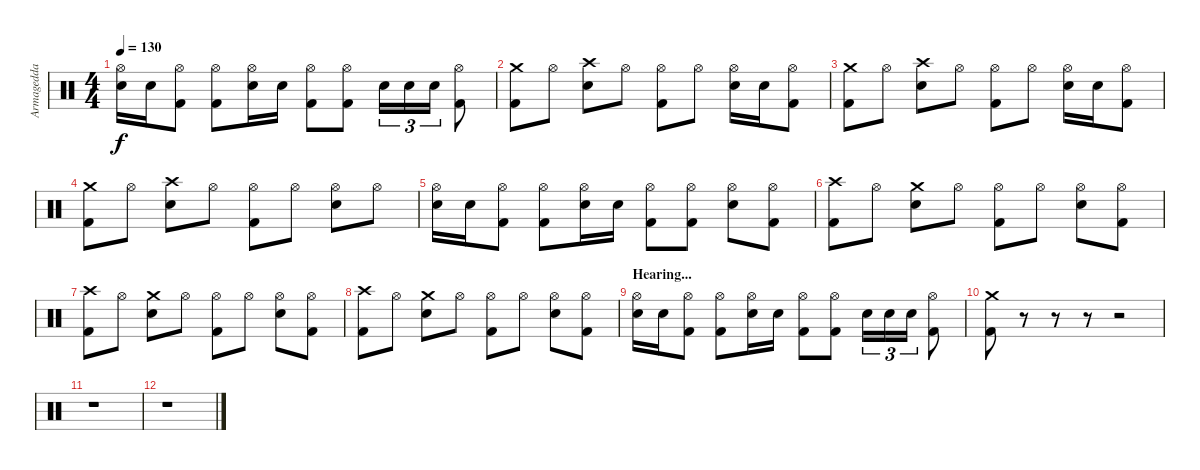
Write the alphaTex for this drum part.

\track ("Armagedda" "Armagedda") {instrument percussion}
\staff {score}
\articulation defaults
\ts (4 4)
\tempo 130
\clef neutral
\ks c
("Hi-Hat (open)" "Electric Snare (hit)").16{dy f} "Electric Snare (hit)".16 ("Hi-Hat (open)" "Kick (hit) 2").8 ("Hi-Hat (open)" "Kick (hit) 2").8 ("Hi-Hat (open)" "Electric Snare (hit)").16 "Electric Snare (hit)".16 ("Hi-Hat (open)" "Kick (hit) 2").8 ("Hi-Hat (open)" "Kick (hit) 2").8 "Electric Snare (hit)".16{tu (3 2)} "Electric Snare (hit)".16{tu (3 2)} "Electric Snare (hit)".16{tu (3 2)} ("Hi-Hat (open)" "Kick (hit) 2").8 |
("Crash medium (hit)" "Kick (hit) 2").8 "Hi-Hat (open)".8 ("Crash high (hit)" "Electric Snare (hit)").8 "Hi-Hat (open)".8 ("Hi-Hat (open)" "Kick (hit) 2").8 "Hi-Hat (open)".8 ("Hi-Hat (open)" "Electric Snare (hit)").16 "Electric Snare (hit)".16 ("Hi-Hat (open)" "Kick (hit) 2").8 |
("Crash medium (hit)" "Kick (hit) 2").8 "Hi-Hat (open)".8 ("Crash high (hit)" "Electric Snare (hit)").8 "Hi-Hat (open)".8 ("Hi-Hat (open)" "Kick (hit) 2").8 "Hi-Hat (open)".8 ("Hi-Hat (open)" "Electric Snare (hit)").16 "Electric Snare (hit)".16 ("Hi-Hat (open)" "Kick (hit) 2").8 |
("Crash medium (hit)" "Kick (hit) 2").8 "Hi-Hat (open)".8 ("Crash high (hit)" "Electric Snare (hit)").8 "Hi-Hat (open)".8 ("Hi-Hat (open)" "Kick (hit) 2").8 "Hi-Hat (open)".8 ("Hi-Hat (open)" "Electric Snare (hit)").8 "Hi-Hat (open)".8 |
("Hi-Hat (open)" "Electric Snare (hit)").16 "Electric Snare (hit)".16 ("Hi-Hat (open)" "Kick (hit) 2").8 ("Hi-Hat (open)" "Kick (hit) 2").8 ("Hi-Hat (open)" "Electric Snare (hit)").16 "Electric Snare (hit)".16 ("Hi-Hat (open)" "Kick (hit) 2").8 ("Hi-Hat (open)" "Kick (hit) 2").8 ("Hi-Hat (open)" "Electric Snare (hit)").8 ("Hi-Hat (open)" "Kick (hit) 2").8 |
("Crash high (hit)" "Kick (hit) 2").8 "Hi-Hat (open)".8 ("Crash medium (hit)" "Electric Snare (hit)").8 "Hi-Hat (open)".8 ("Hi-Hat (open)" "Kick (hit) 2").8 "Hi-Hat (open)".8 ("Hi-Hat (open)" "Electric Snare (hit)").8 ("Hi-Hat (open)" "Kick (hit) 2").8 |
("Crash high (hit)" "Kick (hit) 2").8 "Hi-Hat (open)".8 ("Crash medium (hit)" "Electric Snare (hit)").8 "Hi-Hat (open)".8 ("Hi-Hat (open)" "Kick (hit) 2").8 "Hi-Hat (open)".8 ("Hi-Hat (open)" "Electric Snare (hit)").8 ("Hi-Hat (open)" "Kick (hit) 2").8 |
("Crash high (hit)" "Kick (hit) 2").8 "Hi-Hat (open)".8 ("Crash medium (hit)" "Electric Snare (hit)").8 "Hi-Hat (open)".8 ("Hi-Hat (open)" "Kick (hit) 2").8 "Hi-Hat (open)".8 ("Hi-Hat (open)" "Electric Snare (hit)").8 ("Hi-Hat (open)" "Kick (hit) 2").8 |
\section ("" "Hearing...")
("Hi-Hat (open)" "Electric Snare (hit)").16 "Electric Snare (hit)".16 ("Hi-Hat (open)" "Kick (hit) 2").8 ("Hi-Hat (open)" "Kick (hit) 2").8 ("Hi-Hat (open)" "Electric Snare (hit)").16 "Electric Snare (hit)".16 ("Hi-Hat (open)" "Kick (hit) 2").8 ("Hi-Hat (open)" "Kick (hit) 2").8 "Electric Snare (hit)".16{tu (3 2)} "Electric Snare (hit)".16{tu (3 2)} "Electric Snare (hit)".16{tu (3 2)} ("Hi-Hat (open)" "Kick (hit) 2").8 |
("Crash medium (hit)" "Kick (hit) 2").8 r.8 r.8 r.8 r.2 |
r.1 |
r.1
